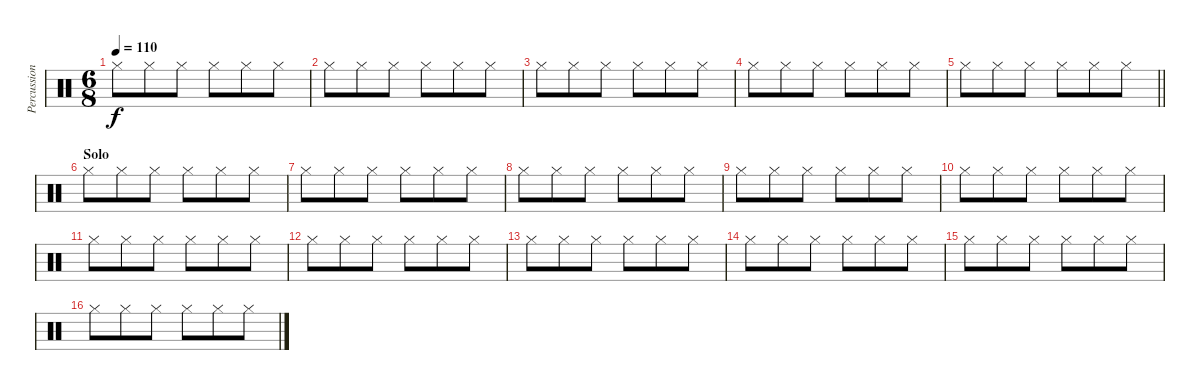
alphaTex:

\track ("Percussion" "Percussion") {instrument percussion}
\staff {score}
\articulation defaults
\ts (6 8)
\tempo 110
\clef neutral
\ks c "Hi-Hat (closed)".8{dy f} "Hi-Hat (closed)".8 "Hi-Hat (closed)".8 "Hi-Hat (closed)".8 "Hi-Hat (closed)".8 "Hi-Hat (closed)".8
|
"Hi-Hat (closed)".8 "Hi-Hat (closed)".8 "Hi-Hat (closed)".8 "Hi-Hat (closed)".8 "Hi-Hat (closed)".8 "Hi-Hat (closed)".8 |
"Hi-Hat (closed)".8 "Hi-Hat (closed)".8 "Hi-Hat (closed)".8 "Hi-Hat (closed)".8 "Hi-Hat (closed)".8 "Hi-Hat (closed)".8 |
"Hi-Hat (closed)".8 "Hi-Hat (closed)".8 "Hi-Hat (closed)".8 "Hi-Hat (closed)".8 "Hi-Hat (closed)".8 "Hi-Hat (closed)".8 |
\barLineRight lightlight "Hi-Hat (closed)".8 "Hi-Hat (closed)".8 "Hi-Hat (closed)".8 "Hi-Hat (closed)".8 "Hi-Hat (closed)".8 "Hi-Hat (closed)".8
|
\section ("" "Solo")
"Hi-Hat (closed)".8 "Hi-Hat (closed)".8 "Hi-Hat (closed)".8 "Hi-Hat (closed)".8 "Hi-Hat (closed)".8 "Hi-Hat (closed)".8 |
"Hi-Hat (closed)".8 "Hi-Hat (closed)".8 "Hi-Hat (closed)".8 "Hi-Hat (closed)".8 "Hi-Hat (closed)".8 "Hi-Hat (closed)".8 |
"Hi-Hat (closed)".8 "Hi-Hat (closed)".8 "Hi-Hat (closed)".8 "Hi-Hat (closed)".8 "Hi-Hat (closed)".8 "Hi-Hat (closed)".8 |
"Hi-Hat (closed)".8 "Hi-Hat (closed)".8 "Hi-Hat (closed)".8 "Hi-Hat (closed)".8 "Hi-Hat (closed)".8 "Hi-Hat (closed)".8 |
"Hi-Hat (closed)".8 "Hi-Hat (closed)".8 "Hi-Hat (closed)".8 "Hi-Hat (closed)".8 "Hi-Hat (closed)".8 "Hi-Hat (closed)".8 |
"Hi-Hat (closed)".8 "Hi-Hat (closed)".8 "Hi-Hat (closed)".8 "Hi-Hat (closed)".8 "Hi-Hat (closed)".8 "Hi-Hat (closed)".8 |
"Hi-Hat (closed)".8 "Hi-Hat (closed)".8 "Hi-Hat (closed)".8 "Hi-Hat (closed)".8 "Hi-Hat (closed)".8 "Hi-Hat (closed)".8 |
"Hi-Hat (closed)".8 "Hi-Hat (closed)".8 "Hi-Hat (closed)".8 "Hi-Hat (closed)".8 "Hi-Hat (closed)".8 "Hi-Hat (closed)".8 |
"Hi-Hat (closed)".8 "Hi-Hat (closed)".8 "Hi-Hat (closed)".8 "Hi-Hat (closed)".8 "Hi-Hat (closed)".8 "Hi-Hat (closed)".8 |
"Hi-Hat (closed)".8 "Hi-Hat (closed)".8 "Hi-Hat (closed)".8 "Hi-Hat (closed)".8 "Hi-Hat (closed)".8 "Hi-Hat (closed)".8 |
"Hi-Hat (closed)".8 "Hi-Hat (closed)".8 "Hi-Hat (closed)".8 "Hi-Hat (closed)".8 "Hi-Hat (closed)".8 "Hi-Hat (closed)".8
